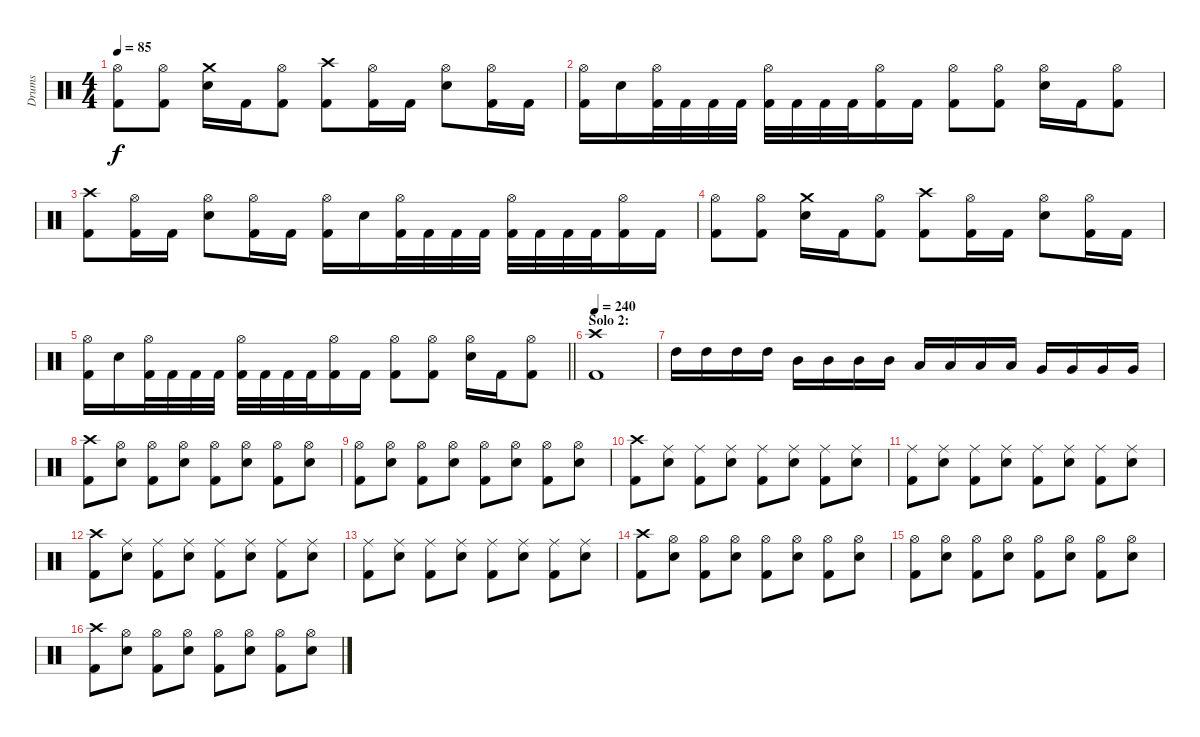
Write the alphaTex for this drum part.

\track ("Drums" "Drums") {instrument percussion}
\staff {score}
\articulation defaults
\ts (4 4)
\tempo 85
\clef neutral
\ks c
("Hi-Hat (open)" "Kick (hit) 2").8{dy f} ("Hi-Hat (open)" "Kick (hit) 2").8 ("Crash medium (hit)" "Electric Snare (hit)").16 "Kick (hit) 2".16 ("Hi-Hat (open)" "Kick (hit) 2").8 ("Crash high (hit)" "Kick (hit) 2").8 ("Hi-Hat (open)" "Kick (hit) 2").16 "Kick (hit) 2".16 ("Hi-Hat (open)" "Electric Snare (hit)").8 ("Hi-Hat (open)" "Kick (hit) 2").16 "Kick (hit) 2".16 |
("Hi-Hat (open)" "Kick (hit) 2").16 "Electric Snare (hit)".16 ("Hi-Hat (open)" "Kick (hit) 2").32 "Kick (hit) 2".32 "Kick (hit) 2".32 "Kick (hit) 2".32 ("Hi-Hat (open)" "Kick (hit) 2").32 "Kick (hit) 2".32 "Kick (hit) 2".32 "Kick (hit) 2".32 ("Hi-Hat (open)" "Kick (hit) 2").16 "Kick (hit) 2".16 ("Hi-Hat (open)" "Kick (hit) 2").8 ("Hi-Hat (open)" "Kick (hit) 2").8 ("Hi-Hat (open)" "Electric Snare (hit)").16 "Kick (hit) 2".16 ("Hi-Hat (open)" "Kick (hit) 2").8 |
("Crash high (hit)" "Kick (hit) 2").8 ("Hi-Hat (open)" "Kick (hit) 2").16 "Kick (hit) 2".16 ("Hi-Hat (open)" "Electric Snare (hit)").8 ("Hi-Hat (open)" "Kick (hit) 2").16 "Kick (hit) 2".16 ("Hi-Hat (open)" "Kick (hit) 2").16 "Electric Snare (hit)".16 ("Hi-Hat (open)" "Kick (hit) 2").32 "Kick (hit) 2".32 "Kick (hit) 2".32 "Kick (hit) 2".32 ("Hi-Hat (open)" "Kick (hit) 2").32 "Kick (hit) 2".32 "Kick (hit) 2".32 "Kick (hit) 2".32 ("Hi-Hat (open)" "Kick (hit) 2").16 "Kick (hit) 2".16 |
("Hi-Hat (open)" "Kick (hit) 2").8 ("Hi-Hat (open)" "Kick (hit) 2").8 ("Crash medium (hit)" "Electric Snare (hit)").16 "Kick (hit) 2".16 ("Hi-Hat (open)" "Kick (hit) 2").8 ("Crash high (hit)" "Kick (hit) 2").8 ("Hi-Hat (open)" "Kick (hit) 2").16 "Kick (hit) 2".16 ("Hi-Hat (open)" "Electric Snare (hit)").8 ("Hi-Hat (open)" "Kick (hit) 2").16 "Kick (hit) 2".16 |
\barLineRight lightlight
("Hi-Hat (open)" "Kick (hit) 2").16 "Electric Snare (hit)".16 ("Hi-Hat (open)" "Kick (hit) 2").32 "Kick (hit) 2".32 "Kick (hit) 2".32 "Kick (hit) 2".32 ("Hi-Hat (open)" "Kick (hit) 2").32 "Kick (hit) 2".32 "Kick (hit) 2".32 "Kick (hit) 2".32 ("Hi-Hat (open)" "Kick (hit) 2").16 "Kick (hit) 2".16 ("Hi-Hat (open)" "Kick (hit) 2").8 ("Hi-Hat (open)" "Kick (hit) 2").8 ("Hi-Hat (open)" "Electric Snare (hit)").16 "Kick (hit) 2".16 ("Hi-Hat (open)" "Kick (hit) 2").8 |
\section ("" "Solo 2:")
\tempo 240
("Crash high (hit)" "Kick (hit) 2").1 |
"High Tom (hit)".16 "High Tom (hit)".16 "High Tom (hit)".16 "High Tom (hit)".16 "Mid Tom (hit)".16 "Mid Tom (hit)".16 "Mid Tom (hit)".16 "Mid Tom (hit)".16 "Low Tom (hit)".16 "Low Tom (hit)".16 "Low Tom (hit)".16 "Low Tom (hit)".16 "Very Low Tom (hit)".16 "Very Low Tom (hit)".16 "Very Low Tom (hit)".16 "Very Low Tom (hit)".16 |
("Crash high (hit)" "Kick (hit) 2").8 ("Hi-Hat (open)" "Electric Snare (hit)").8 ("Hi-Hat (open)" "Kick (hit) 2").8 ("Hi-Hat (open)" "Electric Snare (hit)").8 ("Hi-Hat (open)" "Kick (hit) 2").8 ("Hi-Hat (open)" "Electric Snare (hit)").8 ("Hi-Hat (open)" "Kick (hit) 2").8 ("Hi-Hat (open)" "Electric Snare (hit)").8 |
("Hi-Hat (open)" "Kick (hit) 2").8 ("Hi-Hat (open)" "Electric Snare (hit)").8 ("Hi-Hat (open)" "Kick (hit) 2").8 ("Hi-Hat (open)" "Electric Snare (hit)").8 ("Hi-Hat (open)" "Kick (hit) 2").8 ("Hi-Hat (open)" "Electric Snare (hit)").8 ("Hi-Hat (open)" "Kick (hit) 2").8 ("Hi-Hat (open)" "Electric Snare (hit)").8 |
("Crash high (hit)" "Kick (hit) 2").8 ("Ride (middle)" "Electric Snare (hit)").8 ("Ride (middle)" "Kick (hit) 2").8 ("Ride (middle)" "Electric Snare (hit)").8 ("Ride (middle)" "Kick (hit) 2").8 ("Ride (middle)" "Electric Snare (hit)").8 ("Ride (middle)" "Kick (hit) 2").8 ("Ride (middle)" "Electric Snare (hit)").8 |
("Ride (middle)" "Kick (hit) 2").8 ("Ride (middle)" "Electric Snare (hit)").8 ("Ride (middle)" "Kick (hit) 2").8 ("Ride (middle)" "Electric Snare (hit)").8 ("Ride (middle)" "Kick (hit) 2").8 ("Ride (middle)" "Electric Snare (hit)").8 ("Ride (middle)" "Kick (hit) 2").8 ("Ride (middle)" "Electric Snare (hit)").8 |
("Crash high (hit)" "Kick (hit) 2").8 ("Ride (middle)" "Electric Snare (hit)").8 ("Ride (middle)" "Kick (hit) 2").8 ("Ride (middle)" "Electric Snare (hit)").8 ("Ride (middle)" "Kick (hit) 2").8 ("Ride (middle)" "Electric Snare (hit)").8 ("Ride (middle)" "Kick (hit) 2").8 ("Ride (middle)" "Electric Snare (hit)").8 |
("Ride (middle)" "Kick (hit) 2").8 ("Ride (middle)" "Electric Snare (hit)").8 ("Ride (middle)" "Kick (hit) 2").8 ("Ride (middle)" "Electric Snare (hit)").8 ("Ride (middle)" "Kick (hit) 2").8 ("Ride (middle)" "Electric Snare (hit)").8 ("Ride (middle)" "Kick (hit) 2").8 ("Ride (middle)" "Electric Snare (hit)").8 |
("Crash high (hit)" "Kick (hit) 2").8 ("Hi-Hat (open)" "Electric Snare (hit)").8 ("Hi-Hat (open)" "Kick (hit) 2").8 ("Hi-Hat (open)" "Electric Snare (hit)").8 ("Hi-Hat (open)" "Kick (hit) 2").8 ("Hi-Hat (open)" "Electric Snare (hit)").8 ("Hi-Hat (open)" "Kick (hit) 2").8 ("Hi-Hat (open)" "Electric Snare (hit)").8 |
("Hi-Hat (open)" "Kick (hit) 2").8 ("Hi-Hat (open)" "Electric Snare (hit)").8 ("Hi-Hat (open)" "Kick (hit) 2").8 ("Hi-Hat (open)" "Electric Snare (hit)").8 ("Hi-Hat (open)" "Kick (hit) 2").8 ("Hi-Hat (open)" "Electric Snare (hit)").8 ("Hi-Hat (open)" "Kick (hit) 2").8 ("Hi-Hat (open)" "Electric Snare (hit)").8 |
("Crash high (hit)" "Kick (hit) 2").8 ("Hi-Hat (open)" "Electric Snare (hit)").8 ("Hi-Hat (open)" "Kick (hit) 2").8 ("Hi-Hat (open)" "Electric Snare (hit)").8 ("Hi-Hat (open)" "Kick (hit) 2").8 ("Hi-Hat (open)" "Electric Snare (hit)").8 ("Hi-Hat (open)" "Kick (hit) 2").8 ("Hi-Hat (open)" "Electric Snare (hit)").8
